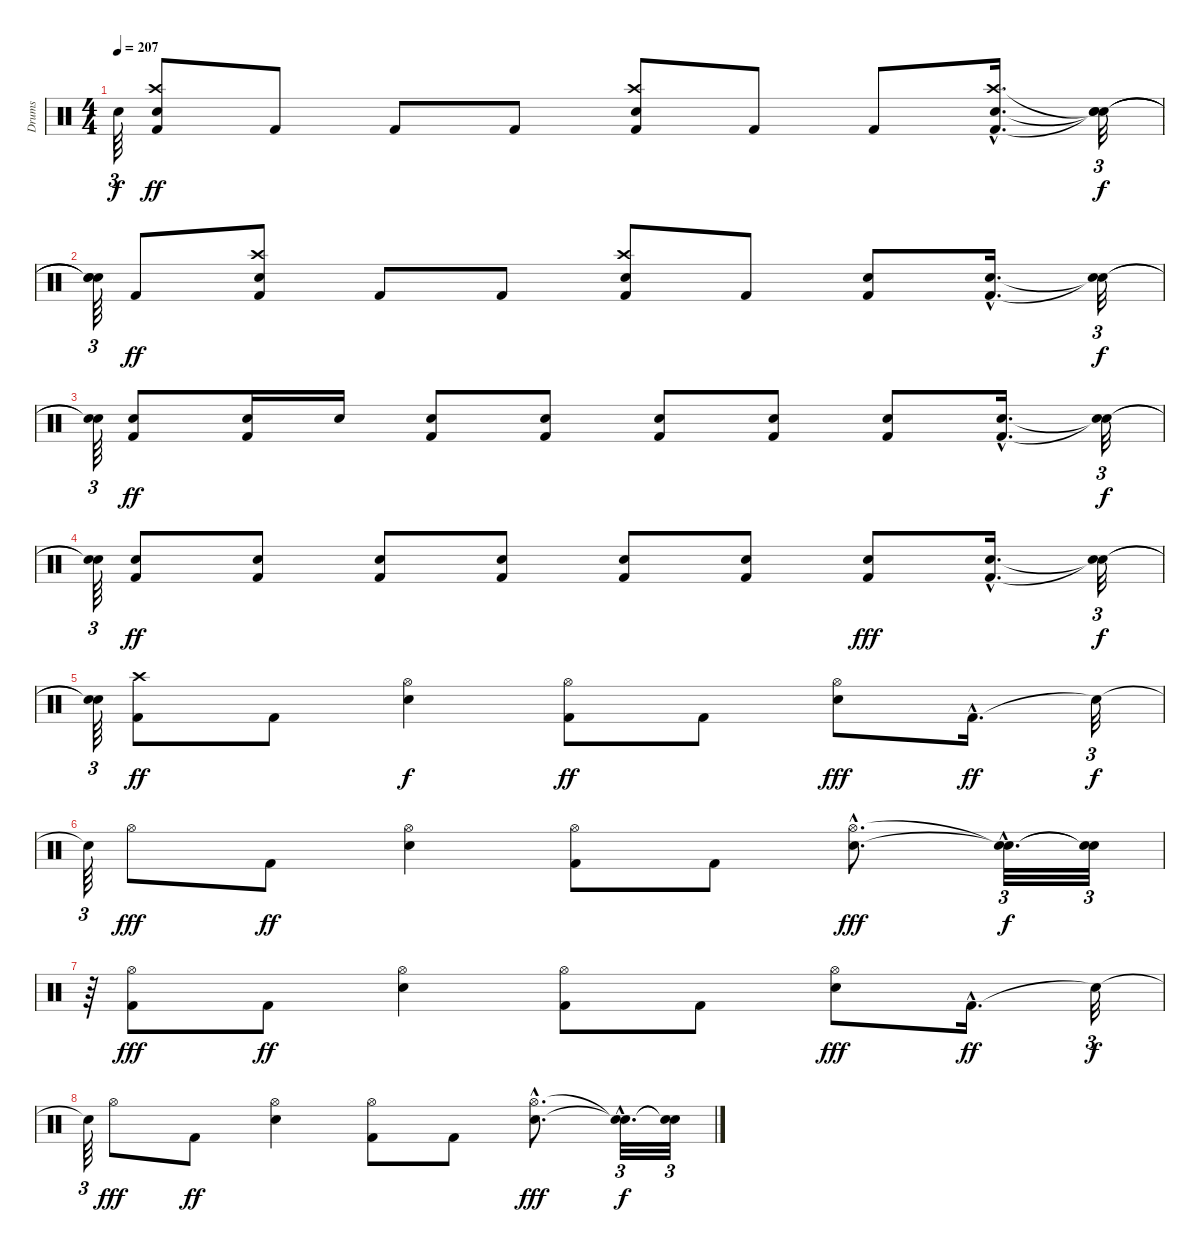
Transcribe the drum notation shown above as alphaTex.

\track ("Drums" "Drums") {instrument percussion}
\staff {score}
\articulation defaults
\ts (4 4)
\tempo 207
\clef neutral
\ks c "Snare (hit)"{t}.64{tu (3 2) dy f}
("Crash high (hit)" "Snare (hit) 2" "Kick (hit) 2").8{dy ff} "Kick (hit) 2".8 "Kick (hit) 2".8 "Kick (hit) 2".8 ("Crash high (hit)" "Snare (hit) 2" "Kick (hit) 2").8 "Kick (hit) 2".8 "Kick (hit) 2".8 ("Crash high (hit)"{hac} "Snare (hit) 2"{hac} "Kick (hit) 2"{hac}).16{d} ("Snare (hit)"{t} "Snare (hit)"{t} "Snare (hit)"{t}).32{tu (3 2) dy f} |
("Snare (hit)"{t} "Snare (hit)"{t} "Snare (hit)"{t}).64{tu (3 2)} "Kick (hit) 2".8{dy ff} ("Crash high (hit)" "Snare (hit) 2" "Kick (hit) 2").8 "Kick (hit) 2".8 "Kick (hit) 2".8 ("Crash high (hit)" "Snare (hit) 2" "Kick (hit) 2").8 "Kick (hit) 2".8 ("Snare (hit) 2" "Kick (hit) 2").8 ("Snare (hit) 2"{hac} "Kick (hit) 2"{hac}).16{d} ("Snare (hit)"{t} "Snare (hit)"{t}).32{tu (3 2) dy f} |
("Snare (hit)"{t} "Snare (hit)"{t}).64{tu (3 2)} ("Snare (hit) 2" "Kick (hit) 2").8{dy ff} ("Snare (hit) 2" "Kick (hit) 2").16 "Snare (hit) 2".16 ("Kick (hit) 2" "Snare (hit) 2").8 ("Kick (hit) 2" "Snare (hit) 2").8 ("Kick (hit) 2" "Snare (hit) 2").8 ("Kick (hit) 2" "Snare (hit) 2").8 ("Kick (hit) 2" "Snare (hit) 2").8 ("Kick (hit) 2"{hac} "Snare (hit) 2"{hac}).16{d} ("Snare (hit)"{t} "Snare (hit)"{t}).32{tu (3 2) dy f} |
("Snare (hit)"{t} "Snare (hit)"{t}).64{tu (3 2)} ("Kick (hit) 2" "Snare (hit) 2").8{dy ff} ("Kick (hit) 2" "Snare (hit) 2").8 ("Kick (hit) 2" "Snare (hit) 2").8 ("Kick (hit) 2" "Snare (hit) 2").8 ("Kick (hit) 2" "Snare (hit) 2").8 ("Kick (hit) 2" "Snare (hit) 2").8 ("Kick (hit) 2" "Snare (hit) 2").8{dy fff} ("Kick (hit) 2"{hac} "Snare (hit) 2"{hac}).16{d} ("Snare (hit)"{t} "Snare (hit)"{t}).32{tu (3 2) dy f} |
("Snare (hit)"{t} "Snare (hit)"{t}).64{tu (3 2)} ("Crash high (hit)" "Kick (hit) 2").8{dy ff} "Kick (hit) 2".8 ("Hi-Hat (open)" "Snare (hit) 2").4{dy f} ("Kick (hit) 2" "Hi-Hat (open)").8{dy ff} "Kick (hit) 2".8 ("Snare (hit) 2" "Hi-Hat (open)").8{dy fff} "Kick (hit) 2"{hac}.16{d dy ff} "Snare (hit)"{t}.32{tu (3 2) dy f} |
"Snare (hit)"{t}.64{tu (3 2)} "Hi-Hat (open)".8{dy fff} "Kick (hit) 2".8{dy ff} ("Snare (hit) 2" "Hi-Hat (open)").4 ("Kick (hit) 2" "Hi-Hat (open)").8 "Kick (hit) 2".8 ("Snare (hit) 2"{hac} "Hi-Hat (open)"{hac}).8{d dy fff} ("Snare (hit)"{hac t} "Snare (hit)"{hac t}).32{d tu (3 2) dy f} ("Snare (hit)"{t} "Snare (hit)"{t}).32{tu (3 2)} |
r.64{tu (3 2)} ("Kick (hit) 2" "Hi-Hat (open)").8{dy fff} "Kick (hit) 2".8{dy ff} ("Snare (hit) 2" "Hi-Hat (open)").4 ("Kick (hit) 2" "Hi-Hat (open)").8 "Kick (hit) 2".8 ("Snare (hit) 2" "Hi-Hat (open)").8{dy fff} "Kick (hit) 2"{hac}.16{d dy ff} "Snare (hit)"{t}.32{tu (3 2) dy f} |
"Snare (hit)"{t}.64{tu (3 2)} "Hi-Hat (open)".8{dy fff} "Kick (hit) 2".8{dy ff} ("Snare (hit) 2" "Hi-Hat (open)").4 ("Kick (hit) 2" "Hi-Hat (open)").8 "Kick (hit) 2".8 ("Snare (hit) 2"{hac} "Hi-Hat (open)"{hac}).8{d dy fff} ("Snare (hit)"{hac t} "Snare (hit)"{hac t}).32{d tu (3 2) dy f} ("Snare (hit)"{t} "Snare (hit)"{t}).32{tu (3 2)}
